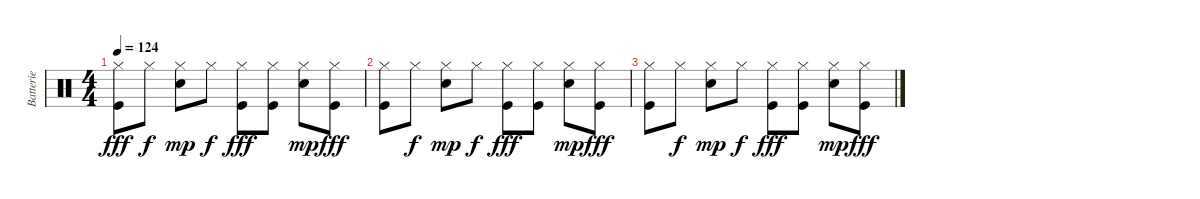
\track ("Batterie" "Batterie") {instrument percussion}
\staff {score}
\articulation defaults
\ts (4 4)
\tempo 124
\clef neutral
\ks c
("Hi-Hat (closed)" "Kick (hit)").8{dy fff} "Hi-Hat (closed)".8{dy f} ("Hi-Hat (closed)" "Electric Snare (hit)").8{dy mp} "Hi-Hat (closed)".8{dy f} ("Hi-Hat (closed)" "Kick (hit)").8{dy fff} ("Hi-Hat (closed)" "Kick (hit)").8 ("Hi-Hat (closed)" "Electric Snare (hit)").8{dy mp} ("Hi-Hat (closed)" "Kick (hit)").8{dy fff} |
("Hi-Hat (closed)" "Kick (hit)").8 "Hi-Hat (closed)".8{dy f} ("Hi-Hat (closed)" "Electric Snare (hit)").8{dy mp} "Hi-Hat (closed)".8{dy f} ("Hi-Hat (closed)" "Kick (hit)").8{dy fff} ("Hi-Hat (closed)" "Kick (hit)").8 ("Hi-Hat (closed)" "Electric Snare (hit)").8{dy mp} ("Hi-Hat (closed)" "Kick (hit)").8{dy fff} |
("Hi-Hat (closed)" "Kick (hit)").8 "Hi-Hat (closed)".8{dy f} ("Hi-Hat (closed)" "Electric Snare (hit)").8{dy mp} "Hi-Hat (closed)".8{dy f} ("Hi-Hat (closed)" "Kick (hit)").8{dy fff} ("Hi-Hat (closed)" "Kick (hit)").8 ("Hi-Hat (closed)" "Electric Snare (hit)").8{dy mp} ("Hi-Hat (closed)" "Kick (hit)").8{dy fff}
